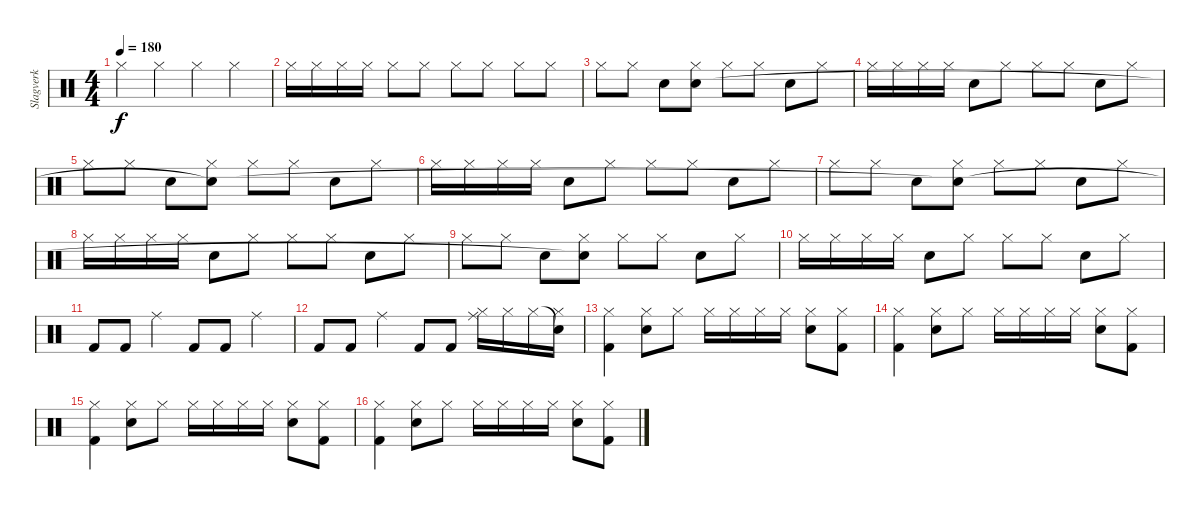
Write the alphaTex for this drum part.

\track ("Slagverk" "Slagverk") {instrument percussion}
\staff {score}
\articulation defaults
\ts (4 4)
\tempo 180
\clef neutral
\ks c "Hi-Hat (closed)".4{dy f} "Hi-Hat (closed)".4 "Hi-Hat (closed)".4 "Hi-Hat (closed)".4
|
"Hi-Hat (closed)".16 "Hi-Hat (closed)".16 "Hi-Hat (closed)".16 "Hi-Hat (closed)".16 "Hi-Hat (closed)".8 "Hi-Hat (closed)".8 "Hi-Hat (closed)".8 "Hi-Hat (closed)".8 "Hi-Hat (closed)".8 "Hi-Hat (closed)".8 |
"Hi-Hat (closed)".8 "Hi-Hat (closed)".8 "Snare (hit) 2".8 ("Hi-Hat (closed)" "Snare (hit)").8 "Hi-Hat (closed)".8 "Hi-Hat (closed)".8 "Snare (hit) 2".8 "Hi-Hat (closed)".8 |
"Hi-Hat (closed)".16 "Hi-Hat (closed)".16 "Hi-Hat (closed)".16 "Hi-Hat (closed)".16 "Snare (hit) 2".8 "Hi-Hat (closed)".8 "Hi-Hat (closed)".8 "Hi-Hat (closed)".8 "Snare (hit) 2".8 "Hi-Hat (closed)".8 |
"Hi-Hat (closed)".8 "Hi-Hat (closed)".8 "Snare (hit) 2".8 ("Hi-Hat (closed)" "Snare (hit)"{t}).8 "Hi-Hat (closed)".8 "Hi-Hat (closed)".8 "Snare (hit) 2".8 "Hi-Hat (closed)".8 |
"Hi-Hat (closed)".16 "Hi-Hat (closed)".16 "Hi-Hat (closed)".16 "Hi-Hat (closed)".16 "Snare (hit) 2".8 "Hi-Hat (closed)".8 "Hi-Hat (closed)".8 "Hi-Hat (closed)".8 "Snare (hit) 2".8 "Hi-Hat (closed)".8 |
"Hi-Hat (closed)".8 "Hi-Hat (closed)".8 "Snare (hit) 2".8 ("Hi-Hat (closed)" "Snare (hit)"{t}).8 "Hi-Hat (closed)".8 "Hi-Hat (closed)".8 "Snare (hit) 2".8 "Hi-Hat (closed)".8 |
"Hi-Hat (closed)".16 "Hi-Hat (closed)".16 "Hi-Hat (closed)".16 "Hi-Hat (closed)".16 "Snare (hit) 2".8 "Hi-Hat (closed)".8 "Hi-Hat (closed)".8 "Hi-Hat (closed)".8 "Snare (hit) 2".8 "Hi-Hat (closed)".8 |
"Hi-Hat (closed)".8 "Hi-Hat (closed)".8 "Snare (hit) 2".8 ("Hi-Hat (closed)" "Snare (hit)"{t}).8 "Hi-Hat (closed)".8 "Hi-Hat (closed)".8 "Snare (hit) 2".8 "Hi-Hat (closed)".8 |
"Hi-Hat (closed)".16 "Hi-Hat (closed)".16 "Hi-Hat (closed)".16 "Hi-Hat (closed)".16 "Snare (hit) 2".8 "Hi-Hat (closed)".8 "Hi-Hat (closed)".8 "Hi-Hat (closed)".8 "Snare (hit) 2".8 "Hi-Hat (closed)".8 |
"Kick (hit) 2".8 "Kick (hit) 2".8 "Ride (middle)".4 "Kick (hit) 2".8 "Kick (hit) 2".8 "Ride (middle)".4 |
"Kick (hit) 2".8 "Kick (hit) 2".8 "Ride (middle)".4 "Kick (hit) 2".8 "Kick (hit) 2".8 ("Ride (middle)" "Hi-Hat (closed)").16 "Hi-Hat (closed)".16 "Hi-Hat (closed)".16 ("Snare (hit)"{t} "Hi-Hat (closed)").16 |
("Hi-Hat (closed)" "Kick (hit) 2").4 ("Hi-Hat (closed)" "Snare (hit) 2").8 "Hi-Hat (closed)".8 "Hi-Hat (closed)".16 "Hi-Hat (closed)".16 "Hi-Hat (closed)".16 "Hi-Hat (closed)".16 ("Hi-Hat (closed)" "Snare (hit) 2").8 ("Hi-Hat (closed)" "Kick (hit) 2").8 |
("Hi-Hat (closed)" "Kick (hit) 2").4 ("Hi-Hat (closed)" "Snare (hit) 2").8 "Hi-Hat (closed)".8 "Hi-Hat (closed)".16 "Hi-Hat (closed)".16 "Hi-Hat (closed)".16 "Hi-Hat (closed)".16 ("Hi-Hat (closed)" "Snare (hit) 2").8 ("Hi-Hat (closed)" "Kick (hit) 2").8 |
("Hi-Hat (closed)" "Kick (hit) 2").4 ("Hi-Hat (closed)" "Snare (hit) 2").8 "Hi-Hat (closed)".8 "Hi-Hat (closed)".16 "Hi-Hat (closed)".16 "Hi-Hat (closed)".16 "Hi-Hat (closed)".16 ("Hi-Hat (closed)" "Snare (hit) 2").8 ("Hi-Hat (closed)" "Kick (hit) 2").8 |
("Hi-Hat (closed)" "Kick (hit) 2").4 ("Hi-Hat (closed)" "Snare (hit) 2").8 "Hi-Hat (closed)".8 "Hi-Hat (closed)".16 "Hi-Hat (closed)".16 "Hi-Hat (closed)".16 "Hi-Hat (closed)".16 ("Hi-Hat (closed)" "Snare (hit) 2").8 ("Hi-Hat (closed)" "Kick (hit) 2").8
